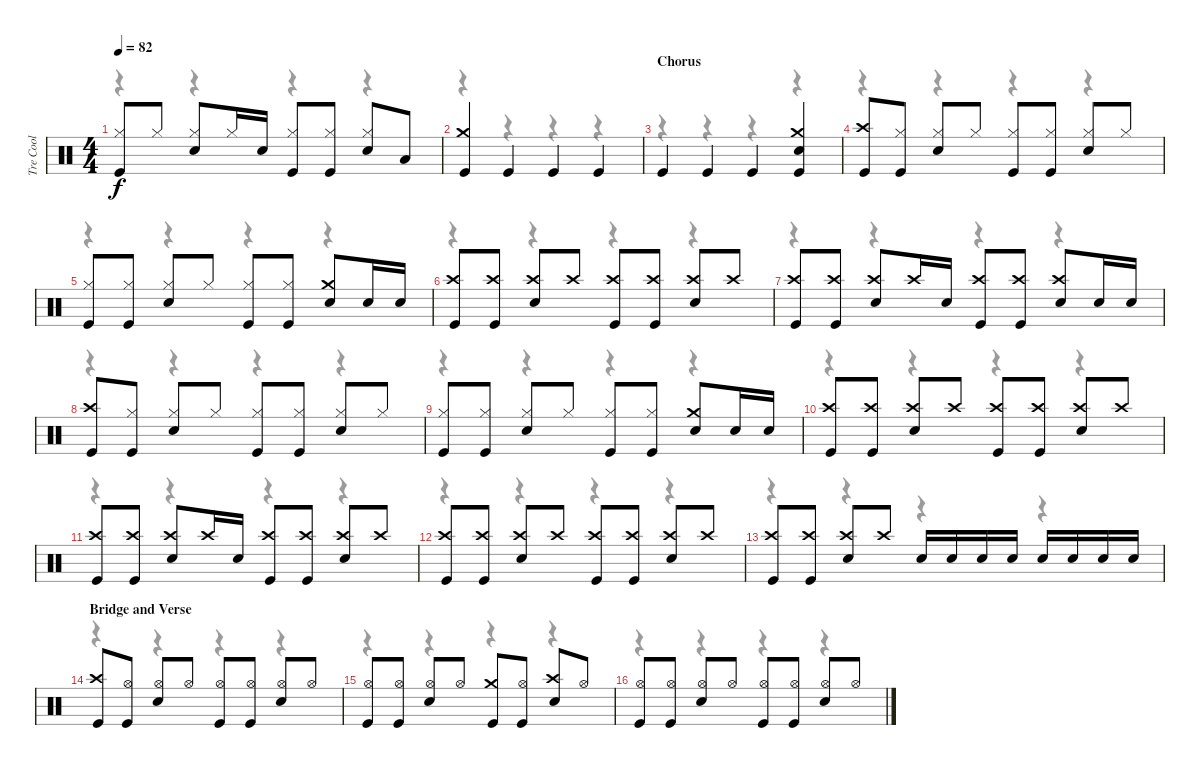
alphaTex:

\track ("Tre Cool" "Tre Cool") {instrument percussion}
\staff {score}
\articulation defaults
\voice
\ts (4 4)
\tempo 82
\clef neutral
\ks c
("Hi-Hat (closed)" "Kick (hit)").8{dy f} "Hi-Hat (closed)".8 ("Hi-Hat (closed)" "Snare (hit) 2").8 "Hi-Hat (closed)".16 "Snare (hit) 2".16 ("Hi-Hat (closed)" "Kick (hit)").8 ("Hi-Hat (closed)" "Kick (hit)").8 ("Hi-Hat (closed)" "Snare (hit) 2").8 "Low Floor Tom (hit)".8 |
("Crash medium (hit)" "Kick (hit)").4 "Kick (hit)".4 "Kick (hit)".4 "Kick (hit)".4 |
\section ("" "Chorus ")
"Kick (hit)".4 "Kick (hit)".4 "Kick (hit)".4 ("Crash medium (hit)" "Snare (hit) 2" "Kick (hit)").4 |
("Crash high (hit)" "Kick (hit)").8 ("Hi-Hat (closed)" "Kick (hit)").8 ("Hi-Hat (closed)" "Snare (hit) 2").8 "Hi-Hat (closed)".8 ("Hi-Hat (closed)" "Kick (hit)").8 ("Hi-Hat (closed)" "Kick (hit)").8 ("Hi-Hat (closed)" "Snare (hit) 2").8 "Hi-Hat (closed)".8 |
("Hi-Hat (closed)" "Kick (hit)").8 ("Hi-Hat (closed)" "Kick (hit)").8 ("Hi-Hat (closed)" "Snare (hit) 2").8 "Hi-Hat (closed)".8 ("Hi-Hat (closed)" "Kick (hit)").8 ("Hi-Hat (closed)" "Kick (hit)").8 ("Crash medium (hit)" "Snare (hit) 2").8 "Snare (hit) 2".16 "Snare (hit) 2".16 |
("Crash high (hit)" "Kick (hit)").8 ("Crash high (hit)" "Kick (hit)").8 ("Crash high (hit)" "Snare (hit) 2").8 "Crash high (hit)".8 ("Crash high (hit)" "Kick (hit)").8 ("Crash high (hit)" "Kick (hit)").8 ("Crash high (hit)" "Snare (hit) 2").8 "Crash high (hit)".8 |
("Crash high (hit)" "Kick (hit)").8 ("Crash high (hit)" "Kick (hit)").8 ("Crash high (hit)" "Snare (hit) 2").8 "Crash high (hit)".16 "Snare (hit) 2".16 ("Crash high (hit)" "Kick (hit)").8 ("Crash high (hit)" "Kick (hit)").8 ("Crash high (hit)" "Snare (hit) 2").8 "Snare (hit) 2".16 "Snare (hit) 2".16 |
("Crash high (hit)" "Kick (hit)").8 ("Hi-Hat (closed)" "Kick (hit)").8 ("Hi-Hat (closed)" "Snare (hit) 2").8 "Hi-Hat (closed)".8 ("Hi-Hat (closed)" "Kick (hit)").8 ("Hi-Hat (closed)" "Kick (hit)").8 ("Hi-Hat (closed)" "Snare (hit) 2").8 "Hi-Hat (closed)".8 |
("Hi-Hat (closed)" "Kick (hit)").8 ("Hi-Hat (closed)" "Kick (hit)").8 ("Hi-Hat (closed)" "Snare (hit) 2").8 "Hi-Hat (closed)".8 ("Hi-Hat (closed)" "Kick (hit)").8 ("Hi-Hat (closed)" "Kick (hit)").8 ("Crash medium (hit)" "Snare (hit) 2").8 "Snare (hit) 2".16 "Snare (hit) 2".16 |
("Crash high (hit)" "Kick (hit)").8 ("Crash high (hit)" "Kick (hit)").8 ("Crash high (hit)" "Snare (hit) 2").8 "Crash high (hit)".8 ("Crash high (hit)" "Kick (hit)").8 ("Crash high (hit)" "Kick (hit)").8 ("Crash high (hit)" "Snare (hit) 2").8 "Crash high (hit)".8 |
("Crash high (hit)" "Kick (hit)").8 ("Crash high (hit)" "Kick (hit)").8 ("Crash high (hit)" "Snare (hit) 2").8 "Crash high (hit)".16 "Snare (hit) 2".16 ("Crash high (hit)" "Kick (hit)").8 ("Crash high (hit)" "Kick (hit)").8 ("Crash high (hit)" "Snare (hit) 2").8 "Crash high (hit)".8 |
("Crash high (hit)" "Kick (hit)").8 ("Crash high (hit)" "Kick (hit)").8 ("Crash high (hit)" "Snare (hit) 2").8 "Crash high (hit)".8 ("Crash high (hit)" "Kick (hit)").8 ("Crash high (hit)" "Kick (hit)").8 ("Crash high (hit)" "Snare (hit) 2").8 "Crash high (hit)".8 |
("Crash high (hit)" "Kick (hit)").8 ("Crash high (hit)" "Kick (hit)").8 ("Crash high (hit)" "Snare (hit) 2").8 "Crash high (hit)".8 "Snare (hit) 2".16 "Snare (hit) 2".16 "Snare (hit) 2".16 "Snare (hit) 2".16 "Snare (hit) 2".16 "Snare (hit) 2".16 "Snare (hit) 2".16 "Snare (hit) 2".16 |
\section ("" "Bridge and Verse ")
("Crash high (hit)" "Kick (hit)").8 ("Hi-Hat (open)" "Kick (hit)").8 ("Hi-Hat (open)" "Snare (hit) 2").8 "Hi-Hat (open)".8 ("Hi-Hat (open)" "Kick (hit)").8 ("Hi-Hat (open)" "Kick (hit)").8 ("Hi-Hat (open)" "Snare (hit) 2").8 "Hi-Hat (open)".8 |
("Hi-Hat (open)" "Kick (hit)").8 ("Hi-Hat (open)" "Kick (hit)").8 ("Hi-Hat (open)" "Snare (hit) 2").8 "Hi-Hat (open)".8 ("Crash medium (hit)" "Kick (hit)").8 ("Hi-Hat (open)" "Kick (hit)").8 ("Crash high (hit)" "Snare (hit) 2").8 "Hi-Hat (open)".8 |
("Hi-Hat (open)" "Kick (hit)").8 ("Hi-Hat (open)" "Kick (hit)").8 ("Hi-Hat (open)" "Snare (hit) 2").8 "Hi-Hat (open)".8 ("Hi-Hat (open)" "Kick (hit)").8 ("Hi-Hat (open)" "Kick (hit)").8 ("Hi-Hat (open)" "Snare (hit) 2").8 "Hi-Hat (open)".8
\voice
\clef neutral
\ottava regular
\simile none
\ks c
r.4{dy f} r.4 r.4 r.4 |
r.4 r.4 r.4 r.4 |
r.4 r.4 r.4 r.4 |
r.4 r.4 r.4 r.4 |
r.4 r.4 r.4 r.4 |
r.4 r.4 r.4 r.4 |
r.4 r.4 r.4 r.4 |
r.4 r.4 r.4 r.4 |
r.4 r.4 r.4 r.4 |
r.4 r.4 r.4 r.4 |
r.4 r.4 r.4 r.4 |
r.4 r.4 r.4 r.4 |
r.4 r.4 r.4 r.4 |
r.4 r.4 r.4 r.4 |
r.4 r.4 r.4 r.4 |
r.4 r.4 r.4 r.4
